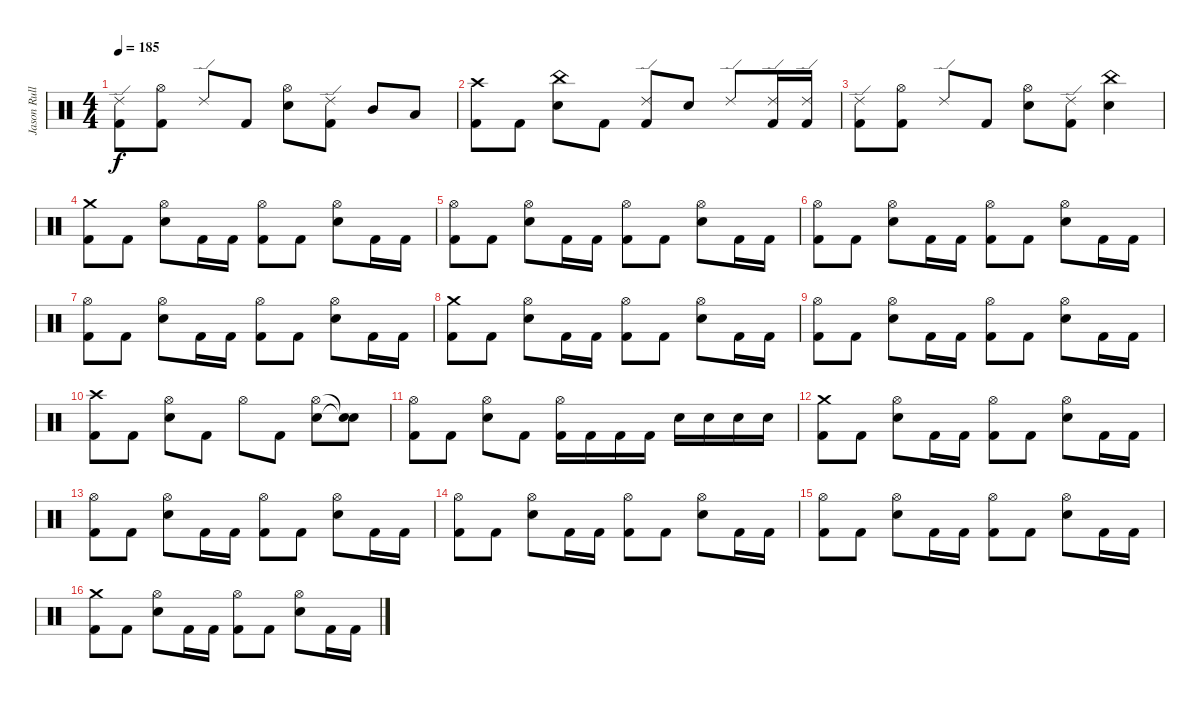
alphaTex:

\track ("Jason Rullo" "Jason Rull") {instrument percussion}
\staff {score}
\articulation defaults
\ts (4 4)
\tempo 185
\clef neutral
\ks c
("Ride (edge) 2" "Kick (hit) 2").8{dy f} ("Hi-Hat (open)" "Kick (hit) 2").8 "Ride (edge) 2".8 "Kick (hit) 2".8 ("Hi-Hat (open)" "Snare (hit) 2").8 ("Ride (edge) 2" "Kick (hit) 2").8 "Mid Tom (hit)".8 "Low Tom (hit)".8 |
("Crash high (hit)" "Kick (hit) 2").8 "Kick (hit) 2".8 ("China (hit)" "Snare (hit) 2").8 "Kick (hit) 2".8 ("Ride (edge) 2" "Kick (hit) 2").8 "Snare (hit) 2".8 "Ride (edge) 2".8 ("Ride (edge) 2" "Kick (hit) 2").16 ("Ride (edge) 2" "Kick (hit) 2").16 |
("Ride (edge) 2" "Kick (hit) 2").8 ("Hi-Hat (open)" "Kick (hit) 2").8 "Ride (edge) 2".8 "Kick (hit) 2".8 ("Hi-Hat (open)" "Snare (hit) 2").8 ("Ride (edge) 2" "Kick (hit) 2").8 ("China (hit)" "Snare (hit) 2").4 |
("Crash medium (hit)" "Kick (hit) 2").8 "Kick (hit) 2".8 ("Hi-Hat (open)" "Snare (hit) 2").8 "Kick (hit) 2".16 "Kick (hit) 2".16 ("Hi-Hat (open)" "Kick (hit) 2").8 "Kick (hit) 2".8 ("Hi-Hat (open)" "Snare (hit) 2").8 "Kick (hit) 2".16 "Kick (hit) 2".16 |
("Hi-Hat (open)" "Kick (hit) 2").8 "Kick (hit) 2".8 ("Hi-Hat (open)" "Snare (hit) 2").8 "Kick (hit) 2".16 "Kick (hit) 2".16 ("Hi-Hat (open)" "Kick (hit) 2").8 "Kick (hit) 2".8 ("Hi-Hat (open)" "Snare (hit) 2").8 "Kick (hit) 2".16 "Kick (hit) 2".16 |
("Hi-Hat (open)" "Kick (hit) 2").8 "Kick (hit) 2".8 ("Hi-Hat (open)" "Snare (hit) 2").8 "Kick (hit) 2".16 "Kick (hit) 2".16 ("Hi-Hat (open)" "Kick (hit) 2").8 "Kick (hit) 2".8 ("Hi-Hat (open)" "Snare (hit) 2").8 "Kick (hit) 2".16 "Kick (hit) 2".16 |
("Hi-Hat (open)" "Kick (hit) 2").8 "Kick (hit) 2".8 ("Hi-Hat (open)" "Snare (hit) 2").8 "Kick (hit) 2".16 "Kick (hit) 2".16 ("Hi-Hat (open)" "Kick (hit) 2").8 "Kick (hit) 2".8 ("Hi-Hat (open)" "Snare (hit) 2").8 "Kick (hit) 2".16 "Kick (hit) 2".16 |
("Crash medium (hit)" "Kick (hit) 2").8 "Kick (hit) 2".8 ("Hi-Hat (open)" "Snare (hit) 2").8 "Kick (hit) 2".16 "Kick (hit) 2".16 ("Hi-Hat (open)" "Kick (hit) 2").8 "Kick (hit) 2".8 ("Hi-Hat (open)" "Snare (hit) 2").8 "Kick (hit) 2".16 "Kick (hit) 2".16 |
("Hi-Hat (open)" "Kick (hit) 2").8 "Kick (hit) 2".8 ("Hi-Hat (open)" "Snare (hit) 2").8 "Kick (hit) 2".16 "Kick (hit) 2".16 ("Hi-Hat (open)" "Kick (hit) 2").8 "Kick (hit) 2".8 ("Hi-Hat (open)" "Snare (hit) 2").8 "Kick (hit) 2".16 "Kick (hit) 2".16 |
("Crash high (hit)" "Kick (hit) 2").8 "Kick (hit) 2".8 ("Hi-Hat (open)" "Snare (hit) 2").8 "Kick (hit) 2".8 "Hi-Hat (open)".8 "Kick (hit) 2".8 ("Hi-Hat (open)" "Snare (hit) 2").8 ("Snare (hit)"{t} "Snare (hit)"{t}).8 |
("Hi-Hat (open)" "Kick (hit) 2").8 "Kick (hit) 2".8 ("Hi-Hat (open)" "Snare (hit) 2").8 "Kick (hit) 2".8 ("Hi-Hat (open)" "Kick (hit) 2").16 "Kick (hit) 2".16 "Kick (hit) 2".16 "Kick (hit) 2".16 "Snare (hit) 2".16 "Snare (hit) 2".16 "Snare (hit) 2".16 "Snare (hit) 2".16 |
("Crash medium (hit)" "Kick (hit) 2").8 "Kick (hit) 2".8 ("Hi-Hat (open)" "Snare (hit) 2").8 "Kick (hit) 2".16 "Kick (hit) 2".16 ("Hi-Hat (open)" "Kick (hit) 2").8 "Kick (hit) 2".8 ("Hi-Hat (open)" "Snare (hit) 2").8 "Kick (hit) 2".16 "Kick (hit) 2".16 |
("Hi-Hat (open)" "Kick (hit) 2").8 "Kick (hit) 2".8 ("Hi-Hat (open)" "Snare (hit) 2").8 "Kick (hit) 2".16 "Kick (hit) 2".16 ("Hi-Hat (open)" "Kick (hit) 2").8 "Kick (hit) 2".8 ("Hi-Hat (open)" "Snare (hit) 2").8 "Kick (hit) 2".16 "Kick (hit) 2".16 |
("Hi-Hat (open)" "Kick (hit) 2").8 "Kick (hit) 2".8 ("Hi-Hat (open)" "Snare (hit) 2").8 "Kick (hit) 2".16 "Kick (hit) 2".16 ("Hi-Hat (open)" "Kick (hit) 2").8 "Kick (hit) 2".8 ("Hi-Hat (open)" "Snare (hit) 2").8 "Kick (hit) 2".16 "Kick (hit) 2".16 |
("Hi-Hat (open)" "Kick (hit) 2").8 "Kick (hit) 2".8 ("Hi-Hat (open)" "Snare (hit) 2").8 "Kick (hit) 2".16 "Kick (hit) 2".16 ("Hi-Hat (open)" "Kick (hit) 2").8 "Kick (hit) 2".8 ("Hi-Hat (open)" "Snare (hit) 2").8 "Kick (hit) 2".16 "Kick (hit) 2".16 |
("Crash medium (hit)" "Kick (hit) 2").8 "Kick (hit) 2".8 ("Hi-Hat (open)" "Snare (hit) 2").8 "Kick (hit) 2".16 "Kick (hit) 2".16 ("Hi-Hat (open)" "Kick (hit) 2").8 "Kick (hit) 2".8 ("Hi-Hat (open)" "Snare (hit) 2").8 "Kick (hit) 2".16 "Kick (hit) 2".16
